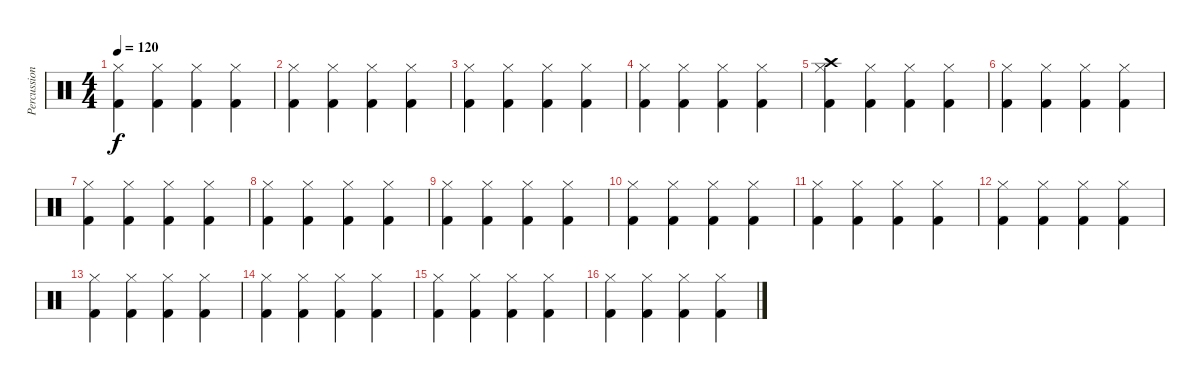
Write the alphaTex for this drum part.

\track ("Percussions" "Percussion") {instrument percussion}
\staff {score}
\articulation defaults
\ts (4 4)
\tempo 120
\clef neutral
\ks c
("Hi-Hat (closed)" "Kick (hit) 2").4{dy f} ("Hi-Hat (closed)" "Kick (hit) 2").4 ("Hi-Hat (closed)" "Kick (hit) 2").4 ("Hi-Hat (closed)" "Kick (hit) 2").4 |
("Hi-Hat (closed)" "Kick (hit) 2").4 ("Hi-Hat (closed)" "Kick (hit) 2").4 ("Hi-Hat (closed)" "Kick (hit) 2").4 ("Hi-Hat (closed)" "Kick (hit) 2").4 |
("Hi-Hat (closed)" "Kick (hit) 2").4 ("Hi-Hat (closed)" "Kick (hit) 2").4 ("Hi-Hat (closed)" "Kick (hit) 2").4 ("Hi-Hat (closed)" "Kick (hit) 2").4 |
("Hi-Hat (closed)" "Kick (hit) 2").4 ("Hi-Hat (closed)" "Kick (hit) 2").4 ("Hi-Hat (closed)" "Kick (hit) 2").4 ("Hi-Hat (closed)" "Kick (hit) 2").4 |
("Hi-Hat (closed)" "Crash high (hit)" "Kick (hit) 2").4 ("Hi-Hat (closed)" "Kick (hit) 2").4 ("Hi-Hat (closed)" "Kick (hit) 2").4 ("Hi-Hat (closed)" "Kick (hit) 2").4 |
("Hi-Hat (closed)" "Kick (hit) 2").4 ("Hi-Hat (closed)" "Kick (hit) 2").4 ("Hi-Hat (closed)" "Kick (hit) 2").4 ("Hi-Hat (closed)" "Kick (hit) 2").4 |
("Hi-Hat (closed)" "Kick (hit) 2").4 ("Hi-Hat (closed)" "Kick (hit) 2").4 ("Hi-Hat (closed)" "Kick (hit) 2").4 ("Hi-Hat (closed)" "Kick (hit) 2").4 |
("Hi-Hat (closed)" "Kick (hit) 2").4 ("Hi-Hat (closed)" "Kick (hit) 2").4 ("Hi-Hat (closed)" "Kick (hit) 2").4 ("Hi-Hat (closed)" "Kick (hit) 2").4 |
("Hi-Hat (closed)" "Kick (hit) 2").4 ("Hi-Hat (closed)" "Kick (hit) 2").4 ("Hi-Hat (closed)" "Kick (hit) 2").4 ("Hi-Hat (closed)" "Kick (hit) 2").4 |
("Hi-Hat (closed)" "Kick (hit) 2").4 ("Hi-Hat (closed)" "Kick (hit) 2").4 ("Hi-Hat (closed)" "Kick (hit) 2").4 ("Hi-Hat (closed)" "Kick (hit) 2").4 |
("Hi-Hat (closed)" "Kick (hit) 2").4 ("Hi-Hat (closed)" "Kick (hit) 2").4 ("Hi-Hat (closed)" "Kick (hit) 2").4 ("Hi-Hat (closed)" "Kick (hit) 2").4 |
("Hi-Hat (closed)" "Kick (hit) 2").4 ("Hi-Hat (closed)" "Kick (hit) 2").4 ("Hi-Hat (closed)" "Kick (hit) 2").4 ("Hi-Hat (closed)" "Kick (hit) 2").4 |
("Hi-Hat (closed)" "Kick (hit) 2").4 ("Hi-Hat (closed)" "Kick (hit) 2").4 ("Hi-Hat (closed)" "Kick (hit) 2").4 ("Hi-Hat (closed)" "Kick (hit) 2").4 |
("Hi-Hat (closed)" "Kick (hit) 2").4 ("Hi-Hat (closed)" "Kick (hit) 2").4 ("Hi-Hat (closed)" "Kick (hit) 2").4 ("Hi-Hat (closed)" "Kick (hit) 2").4 |
("Hi-Hat (closed)" "Kick (hit) 2").4 ("Hi-Hat (closed)" "Kick (hit) 2").4 ("Hi-Hat (closed)" "Kick (hit) 2").4 ("Hi-Hat (closed)" "Kick (hit) 2").4 |
("Hi-Hat (closed)" "Kick (hit) 2").4 ("Hi-Hat (closed)" "Kick (hit) 2").4 ("Hi-Hat (closed)" "Kick (hit) 2").4 ("Hi-Hat (closed)" "Kick (hit) 2").4
